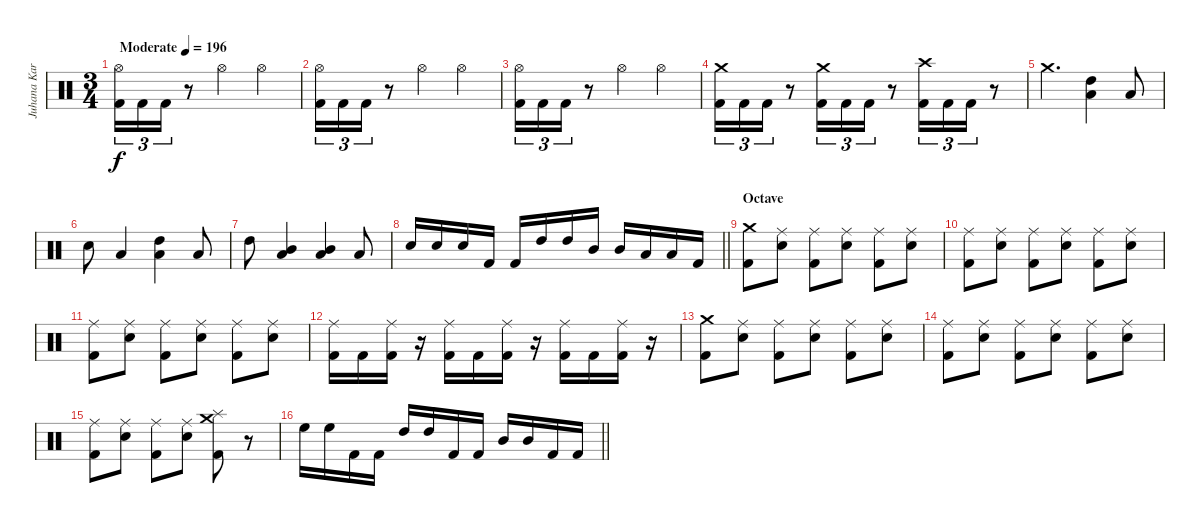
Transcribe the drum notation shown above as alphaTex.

\track ("Juhana Karlsson " "Juhana Kar") {instrument percussion}
\staff {score}
\articulation defaults
\ts (3 4)
\tempo (196 "Moderate")
\clef neutral
\ks c
("Hi-Hat (open)" "Kick (hit) 2").16{tu (3 2) dy f} "Kick (hit) 2".16{tu (3 2)} "Kick (hit) 2".16{tu (3 2)} r.8 "Hi-Hat (open)".4 "Hi-Hat (open)".4 |
("Hi-Hat (open)" "Kick (hit) 2").16{tu (3 2)} "Kick (hit) 2".16{tu (3 2)} "Kick (hit) 2".16{tu (3 2)} r.8 "Hi-Hat (open)".4 "Hi-Hat (open)".4 |
("Hi-Hat (open)" "Kick (hit) 2").16{tu (3 2)} "Kick (hit) 2".16{tu (3 2)} "Kick (hit) 2".16{tu (3 2)} r.8 "Hi-Hat (open)".4 "Hi-Hat (open)".4 |
("Crash medium (hit)" "Kick (hit) 2").16{tu (3 2)} "Kick (hit) 2".16{tu (3 2)} "Kick (hit) 2".16{tu (3 2)} r.8 ("Crash medium (hit)" "Kick (hit) 2").16{tu (3 2)} "Kick (hit) 2".16{tu (3 2)} "Kick (hit) 2".16{tu (3 2)} r.8 ("Crash high (hit)" "Kick (hit) 2").16{tu (3 2)} "Kick (hit) 2".16{tu (3 2)} "Kick (hit) 2".16{tu (3 2)} r.8 |
"Crash medium (hit)".4{d} ("High Tom (hit)" "Low Tom (hit)").4 "Low Tom (hit)".8 |
"Electric Snare (hit)".8 "Low Tom (hit)".4 ("High Tom (hit)" "Low Tom (hit)").4 "Low Tom (hit)".8 |
"High Tom (hit)".8 ("Mid Tom (hit)" "Low Tom (hit)").4 ("Mid Tom (hit)" "Low Tom (hit)").4 "Low Tom (hit)".8 |
\barLineRight lightlight "Electric Snare (hit)".16 "Electric Snare (hit)".16 "Electric Snare (hit)".16 "Kick (hit) 2".16 "Kick (hit) 2".16 "High Tom (hit)".16 "High Tom (hit)".16 "Mid Tom (hit)".16 "Mid Tom (hit)".16 "Low Tom (hit)".16 "Low Tom (hit)".16 "Kick (hit) 2".16
|
\section ("" "Octave")
("Crash medium (hit)" "Kick (hit) 2").8 ("Ride (middle)" "Electric Snare (hit)").8 ("Ride (middle)" "Kick (hit) 2").8 ("Ride (middle)" "Electric Snare (hit)").8 ("Ride (middle)" "Kick (hit) 2").8 ("Ride (middle)" "Electric Snare (hit)").8 |
("Ride (middle)" "Kick (hit) 2").8 ("Ride (middle)" "Electric Snare (hit)").8 ("Ride (middle)" "Kick (hit) 2").8 ("Ride (middle)" "Electric Snare (hit)").8 ("Ride (middle)" "Kick (hit) 2").8 ("Ride (middle)" "Electric Snare (hit)").8 |
("Ride (middle)" "Kick (hit) 2").8 ("Ride (middle)" "Electric Snare (hit)").8 ("Ride (middle)" "Kick (hit) 2").8 ("Ride (middle)" "Electric Snare (hit)").8 ("Ride (middle)" "Kick (hit) 2").8 ("Ride (middle)" "Electric Snare (hit)").8 |
("Ride (middle)" "Kick (hit) 2").16 "Kick (hit) 2".16 ("Ride (middle)" "Kick (hit) 2").16 r.16 ("Ride (middle)" "Kick (hit) 2").16 "Kick (hit) 2".16 ("Ride (middle)" "Kick (hit) 2").16 r.16 ("Ride (middle)" "Kick (hit) 2").16 "Kick (hit) 2".16 ("Ride (middle)" "Kick (hit) 2").16 r.16 |
("Crash medium (hit)" "Kick (hit) 2").8 ("Ride (middle)" "Electric Snare (hit)").8 ("Ride (middle)" "Kick (hit) 2").8 ("Ride (middle)" "Electric Snare (hit)").8 ("Ride (middle)" "Kick (hit) 2").8 ("Ride (middle)" "Electric Snare (hit)").8 |
("Ride (middle)" "Kick (hit) 2").8 ("Ride (middle)" "Electric Snare (hit)").8 ("Ride (middle)" "Kick (hit) 2").8 ("Ride (middle)" "Electric Snare (hit)").8 ("Ride (middle)" "Kick (hit) 2").8 ("Ride (middle)" "Electric Snare (hit)").8 |
("Ride (middle)" "Kick (hit) 2").8 ("Ride (middle)" "Electric Snare (hit)").8 ("Ride (middle)" "Kick (hit) 2").8 ("Ride (middle)" "Electric Snare (hit)").8 ("Splash (hit)" "Crash medium (hit)" "Kick (hit) 2").8 r.8 |
\barLineRight lightlight "High Floor Tom (hit)".16 "High Floor Tom (hit)".16 "Kick (hit) 2".16 "Kick (hit) 2".16 "High Tom (hit)".16 "High Tom (hit)".16 "Kick (hit) 2".16 "Kick (hit) 2".16 "Mid Tom (hit)".16 "Mid Tom (hit)".16 "Kick (hit) 2".16 "Kick (hit) 2".16
